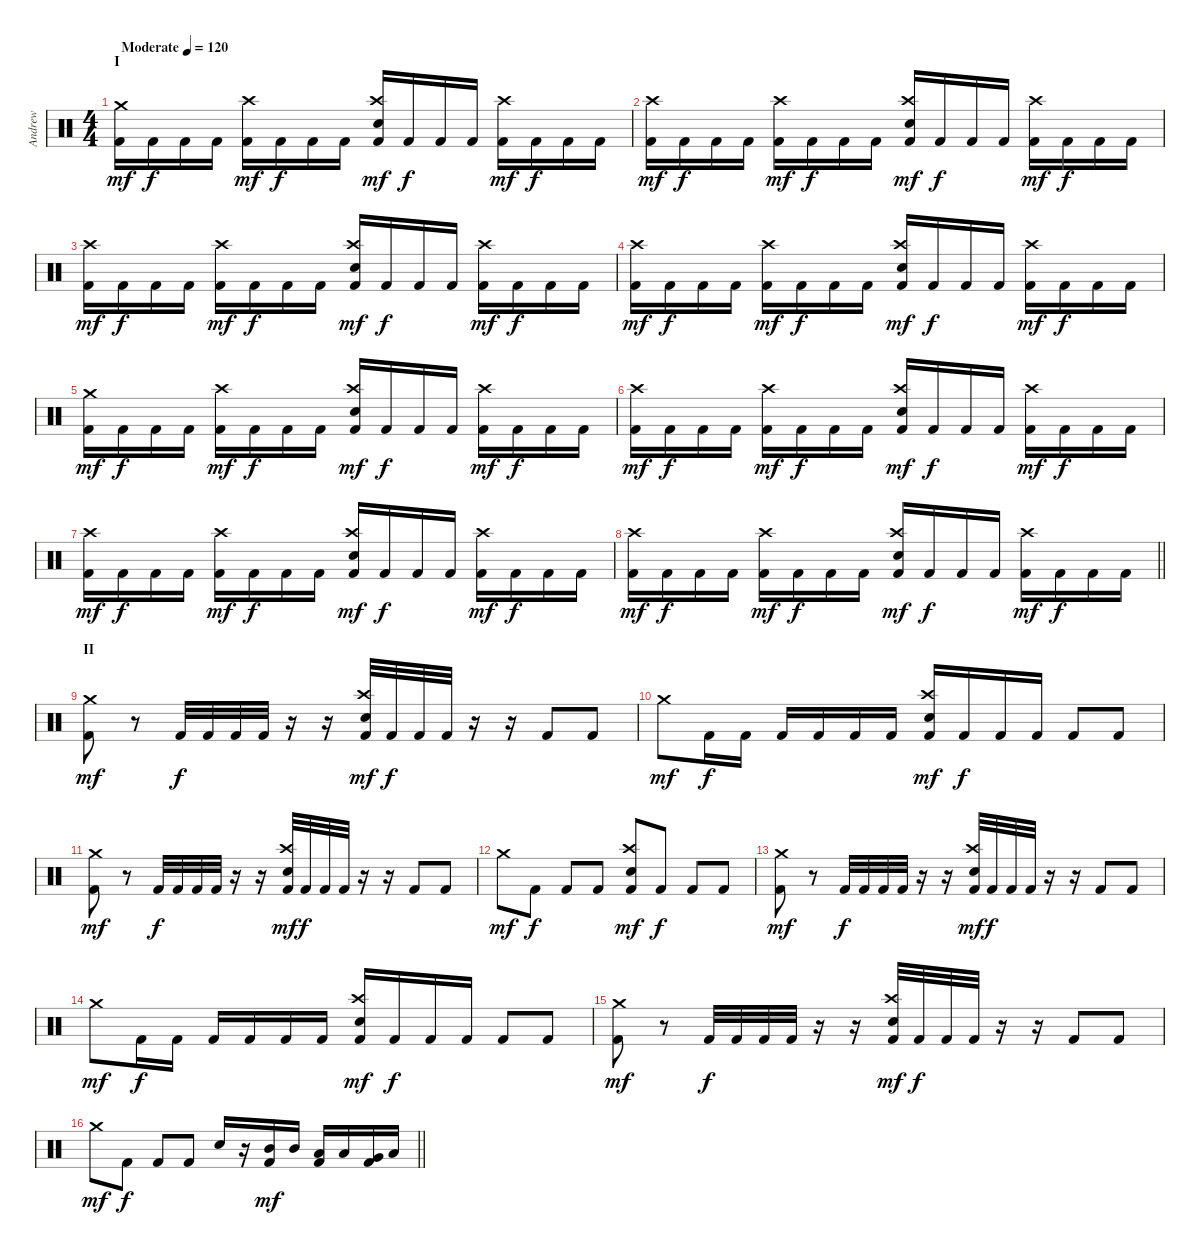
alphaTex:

\track ("Andrew" "Andrew") {instrument percussion}
\staff {score}
\articulation defaults
\ts (4 4)
\section ("" "I")
\tempo (120 "Moderate")
\clef neutral
\ks c
("Crash medium (hit)" "Kick (hit) 2").16{dy mf volume 1} "Kick (hit) 2".16{dy f volume 4} "Kick (hit) 2".16 "Kick (hit) 2".16 ("Crash high (hit)" "Kick (hit) 2").16{dy mf} "Kick (hit) 2".16{dy f} "Kick (hit) 2".16 "Kick (hit) 2".16 ("Crash high (hit)" "Electric Snare (hit)" "Kick (hit) 2").16{dy mf} "Kick (hit) 2".16{dy f} "Kick (hit) 2".16 "Kick (hit) 2".16 ("Crash high (hit)" "Kick (hit) 2").16{dy mf} "Kick (hit) 2".16{dy f} "Kick (hit) 2".16 "Kick (hit) 2".16 |
("Crash high (hit)" "Kick (hit) 2").16{dy mf} "Kick (hit) 2".16{dy f} "Kick (hit) 2".16 "Kick (hit) 2".16 ("Crash high (hit)" "Kick (hit) 2").16{dy mf} "Kick (hit) 2".16{dy f} "Kick (hit) 2".16 "Kick (hit) 2".16 ("Crash high (hit)" "Electric Snare (hit)" "Kick (hit) 2").16{dy mf} "Kick (hit) 2".16{dy f} "Kick (hit) 2".16 "Kick (hit) 2".16 ("Crash high (hit)" "Kick (hit) 2").16{dy mf} "Kick (hit) 2".16{dy f} "Kick (hit) 2".16 "Kick (hit) 2".16 |
("Crash high (hit)" "Kick (hit) 2").16{dy mf} "Kick (hit) 2".16{dy f} "Kick (hit) 2".16 "Kick (hit) 2".16 ("Crash high (hit)" "Kick (hit) 2").16{dy mf} "Kick (hit) 2".16{dy f} "Kick (hit) 2".16 "Kick (hit) 2".16 ("Crash high (hit)" "Electric Snare (hit)" "Kick (hit) 2").16{dy mf} "Kick (hit) 2".16{dy f} "Kick (hit) 2".16 "Kick (hit) 2".16 ("Crash high (hit)" "Kick (hit) 2").16{dy mf} "Kick (hit) 2".16{dy f} "Kick (hit) 2".16 "Kick (hit) 2".16 |
("Crash high (hit)" "Kick (hit) 2").16{dy mf} "Kick (hit) 2".16{dy f} "Kick (hit) 2".16{volume 7} "Kick (hit) 2".16 ("Crash high (hit)" "Kick (hit) 2").16{dy mf} "Kick (hit) 2".16{dy f} "Kick (hit) 2".16 "Kick (hit) 2".16 ("Crash high (hit)" "Electric Snare (hit)" "Kick (hit) 2").16{dy mf} "Kick (hit) 2".16{dy f} "Kick (hit) 2".16 "Kick (hit) 2".16 ("Crash high (hit)" "Kick (hit) 2").16{dy mf} "Kick (hit) 2".16{dy f} "Kick (hit) 2".16 "Kick (hit) 2".16 |
("Crash medium (hit)" "Kick (hit) 2").16{dy mf} "Kick (hit) 2".16{dy f} "Kick (hit) 2".16 "Kick (hit) 2".16 ("Crash high (hit)" "Kick (hit) 2").16{dy mf} "Kick (hit) 2".16{dy f} "Kick (hit) 2".16 "Kick (hit) 2".16 ("Crash high (hit)" "Electric Snare (hit)" "Kick (hit) 2").16{dy mf} "Kick (hit) 2".16{dy f} "Kick (hit) 2".16 "Kick (hit) 2".16 ("Crash high (hit)" "Kick (hit) 2").16{dy mf} "Kick (hit) 2".16{dy f} "Kick (hit) 2".16 "Kick (hit) 2".16 |
("Crash high (hit)" "Kick (hit) 2").16{dy mf} "Kick (hit) 2".16{dy f} "Kick (hit) 2".16 "Kick (hit) 2".16 ("Crash high (hit)" "Kick (hit) 2").16{dy mf} "Kick (hit) 2".16{dy f} "Kick (hit) 2".16 "Kick (hit) 2".16 ("Crash high (hit)" "Electric Snare (hit)" "Kick (hit) 2").16{dy mf} "Kick (hit) 2".16{dy f} "Kick (hit) 2".16 "Kick (hit) 2".16 ("Crash high (hit)" "Kick (hit) 2").16{dy mf} "Kick (hit) 2".16{dy f} "Kick (hit) 2".16 "Kick (hit) 2".16 |
("Crash high (hit)" "Kick (hit) 2").16{dy mf} "Kick (hit) 2".16{dy f} "Kick (hit) 2".16 "Kick (hit) 2".16 ("Crash high (hit)" "Kick (hit) 2").16{dy mf} "Kick (hit) 2".16{dy f} "Kick (hit) 2".16 "Kick (hit) 2".16 ("Crash high (hit)" "Electric Snare (hit)" "Kick (hit) 2").16{dy mf} "Kick (hit) 2".16{dy f} "Kick (hit) 2".16 "Kick (hit) 2".16 ("Crash high (hit)" "Kick (hit) 2").16{dy mf} "Kick (hit) 2".16{dy f} "Kick (hit) 2".16 "Kick (hit) 2".16 |
\barLineRight lightlight
("Crash high (hit)" "Kick (hit) 2").16{dy mf} "Kick (hit) 2".16{dy f} "Kick (hit) 2".16 "Kick (hit) 2".16 ("Crash high (hit)" "Kick (hit) 2").16{dy mf} "Kick (hit) 2".16{dy f} "Kick (hit) 2".16 "Kick (hit) 2".16 ("Crash high (hit)" "Electric Snare (hit)" "Kick (hit) 2").16{dy mf} "Kick (hit) 2".16{dy f} "Kick (hit) 2".16 "Kick (hit) 2".16 ("Crash high (hit)" "Kick (hit) 2").16{dy mf} "Kick (hit) 2".16{dy f} "Kick (hit) 2".16 "Kick (hit) 2".16 |
\section ("" "II")
("Crash medium (hit)" "Kick (hit) 2").8{dy mf volume 16} r.8 "Kick (hit) 2".32{dy f} "Kick (hit) 2".32 "Kick (hit) 2".32 "Kick (hit) 2".32 r.16 r.16 ("Crash high (hit)" "Electric Snare (hit)" "Kick (hit) 2").32{dy mf} "Kick (hit) 2".32{dy f} "Kick (hit) 2".32 "Kick (hit) 2".32 r.16 r.16 "Kick (hit) 2".8 "Kick (hit) 2".8 |
"Crash medium (hit)".8{dy mf} "Kick (hit) 2".16{dy f} "Kick (hit) 2".16 "Kick (hit) 2".16 "Kick (hit) 2".16 "Kick (hit) 2".16 "Kick (hit) 2".16 ("Crash high (hit)" "Electric Snare (hit)" "Kick (hit) 2").16{dy mf} "Kick (hit) 2".16{dy f} "Kick (hit) 2".16 "Kick (hit) 2".16 "Kick (hit) 2".8 "Kick (hit) 2".8 |
("Crash medium (hit)" "Kick (hit) 2").8{dy mf} r.8 "Kick (hit) 2".32{dy f} "Kick (hit) 2".32 "Kick (hit) 2".32 "Kick (hit) 2".32 r.16 r.16 ("Crash high (hit)" "Electric Snare (hit)" "Kick (hit) 2").32{dy mf} "Kick (hit) 2".32{dy f} "Kick (hit) 2".32 "Kick (hit) 2".32 r.16 r.16 "Kick (hit) 2".8 "Kick (hit) 2".8 |
"Crash medium (hit)".8{dy mf} "Kick (hit) 2".8{dy f} "Kick (hit) 2".8 "Kick (hit) 2".8 ("Crash high (hit)" "Electric Snare (hit)" "Kick (hit) 2").8{dy mf} "Kick (hit) 2".8{dy f} "Kick (hit) 2".8 "Kick (hit) 2".8 |
("Crash medium (hit)" "Kick (hit) 2").8{dy mf} r.8 "Kick (hit) 2".32{dy f} "Kick (hit) 2".32 "Kick (hit) 2".32 "Kick (hit) 2".32 r.16 r.16 ("Crash high (hit)" "Electric Snare (hit)" "Kick (hit) 2").32{dy mf} "Kick (hit) 2".32{dy f} "Kick (hit) 2".32 "Kick (hit) 2".32 r.16 r.16 "Kick (hit) 2".8 "Kick (hit) 2".8 |
"Crash medium (hit)".8{dy mf} "Kick (hit) 2".16{dy f} "Kick (hit) 2".16 "Kick (hit) 2".16 "Kick (hit) 2".16 "Kick (hit) 2".16 "Kick (hit) 2".16 ("Crash high (hit)" "Electric Snare (hit)" "Kick (hit) 2").16{dy mf} "Kick (hit) 2".16{dy f} "Kick (hit) 2".16 "Kick (hit) 2".16 "Kick (hit) 2".8 "Kick (hit) 2".8 |
("Crash medium (hit)" "Kick (hit) 2").8{dy mf} r.8 "Kick (hit) 2".32{dy f} "Kick (hit) 2".32 "Kick (hit) 2".32 "Kick (hit) 2".32 r.16 r.16 ("Crash high (hit)" "Electric Snare (hit)" "Kick (hit) 2").32{dy mf} "Kick (hit) 2".32{dy f} "Kick (hit) 2".32 "Kick (hit) 2".32 r.16 r.16 "Kick (hit) 2".8 "Kick (hit) 2".8 |
\barLineRight lightlight "Crash medium (hit)".8{dy mf} "Kick (hit) 2".8{dy f} "Kick (hit) 2".8 "Kick (hit) 2".8 "Electric Snare (hit)".16
r.16 ("Mid Tom (hit)" "Kick (hit) 2").16{dy mf} "Mid Tom (hit)".16 ("Low Tom (hit)" "Kick (hit) 2").16 "Low Tom (hit)".16 ("Very Low Tom (hit)" "Kick (hit) 2").16 "Low Floor Tom (hit)".16
